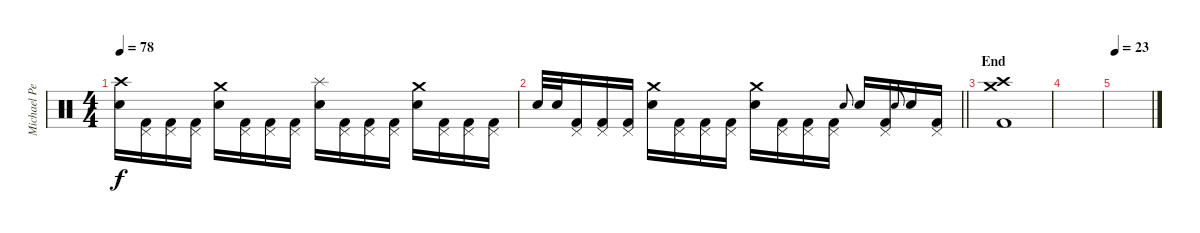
\track ("Michael Pedicone [Drums]" "Michael Pe") {instrument percussion}
\staff {score}
\articulation defaults
\ts (4 4)
\tempo 78
\clef neutral
\ks c
("Crash high (hit)" "Electric Snare (hit)").16{dy f} ("Pedal Hi-Hat (hit)" "Kick (hit) 2").16 ("Pedal Hi-Hat (hit)" "Kick (hit) 2").16 ("Pedal Hi-Hat (hit)" "Kick (hit) 2").16 ("Crash medium (hit)" "Electric Snare (hit)").16 ("Pedal Hi-Hat (hit)" "Kick (hit) 2").16 ("Pedal Hi-Hat (hit)" "Kick (hit) 2").16 ("Pedal Hi-Hat (hit)" "Kick (hit) 2").16 ("Splash (hit)" "Electric Snare (hit)").16 ("Pedal Hi-Hat (hit)" "Kick (hit) 2").16 ("Pedal Hi-Hat (hit)" "Kick (hit) 2").16 ("Pedal Hi-Hat (hit)" "Kick (hit) 2").16 ("Crash medium (hit)" "Electric Snare (hit)").16 ("Pedal Hi-Hat (hit)" "Kick (hit) 2").16 ("Pedal Hi-Hat (hit)" "Kick (hit) 2").16 ("Pedal Hi-Hat (hit)" "Kick (hit) 2").16 |
\barLineRight lightlight "Electric Snare (hit)".32 "Electric Snare (hit)".32
("Pedal Hi-Hat (hit)" "Kick (hit) 2").16 ("Pedal Hi-Hat (hit)" "Kick (hit) 2").16 ("Pedal Hi-Hat (hit)" "Kick (hit) 2").16 ("Crash medium (hit)" "Electric Snare (hit)").16 ("Pedal Hi-Hat (hit)" "Kick (hit) 2").16 ("Pedal Hi-Hat (hit)" "Kick (hit) 2").16 ("Pedal Hi-Hat (hit)" "Kick (hit) 2").16 ("Crash medium (hit)" "Electric Snare (hit)").16 ("Pedal Hi-Hat (hit)" "Kick (hit) 2").16 ("Pedal Hi-Hat (hit)" "Kick (hit) 2").16 ("Pedal Hi-Hat (hit)" "Kick (hit) 2").16 "Electric Snare (hit)".8{gr onbeat} "Electric Snare (hit)".16 ("Pedal Hi-Hat (hit)" "Kick (hit) 2").16 "Electric Snare (hit)".8{gr onbeat} "Electric Snare (hit)".16 ("Pedal Hi-Hat (hit)" "Kick (hit) 2").16 |
\section ("" "End")
("Crash high (hit)" "Crash medium (hit)" "Kick (hit) 2").1 |
|
\tempo 23
